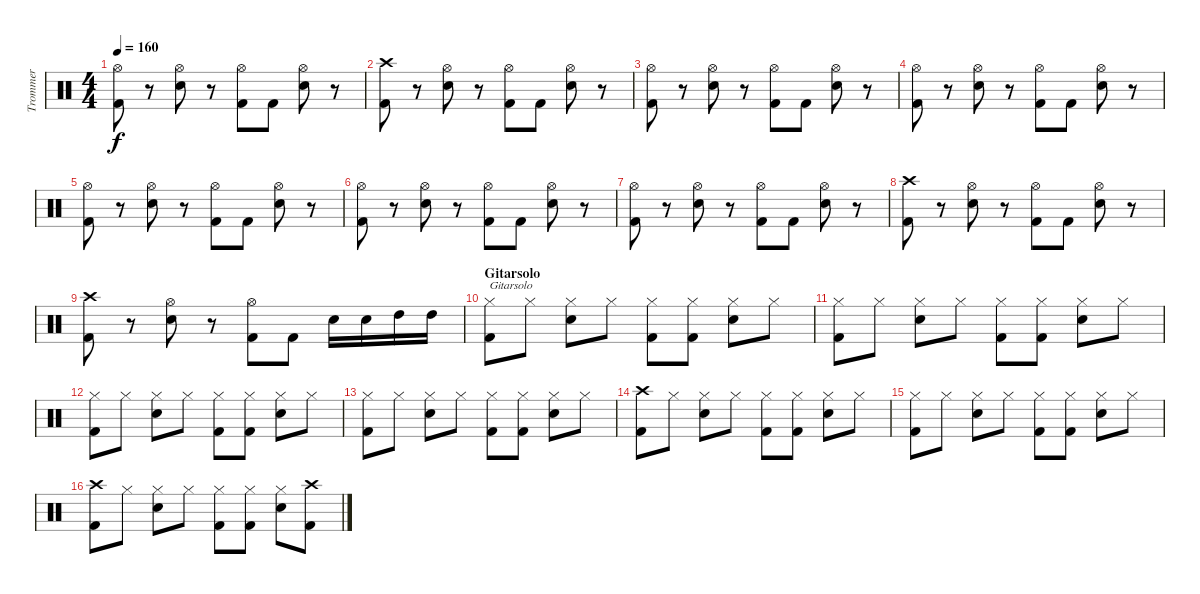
\track ("Trommer" "Trommer") {instrument percussion}
\staff {score}
\articulation defaults
\ts (4 4)
\tempo 160
\clef neutral
\ks c
("Hi-Hat (open)" "Kick (hit) 2").8{dy f} r.8 ("Hi-Hat (open)" "Electric Snare (hit)").8 r.8 ("Hi-Hat (open)" "Kick (hit) 2").8 "Kick (hit) 2".8 ("Hi-Hat (open)" "Electric Snare (hit)").8 r.8 |
("Crash high (hit)" "Kick (hit) 2").8 r.8 ("Hi-Hat (open)" "Electric Snare (hit)").8 r.8 ("Hi-Hat (open)" "Kick (hit) 2").8 "Kick (hit) 2".8 ("Hi-Hat (open)" "Electric Snare (hit)").8 r.8 |
("Hi-Hat (open)" "Kick (hit) 2").8 r.8 ("Hi-Hat (open)" "Electric Snare (hit)").8 r.8 ("Hi-Hat (open)" "Kick (hit) 2").8 "Kick (hit) 2".8 ("Hi-Hat (open)" "Electric Snare (hit)").8 r.8 |
("Hi-Hat (open)" "Kick (hit) 2").8 r.8 ("Hi-Hat (open)" "Electric Snare (hit)").8 r.8 ("Hi-Hat (open)" "Kick (hit) 2").8 "Kick (hit) 2".8 ("Hi-Hat (open)" "Electric Snare (hit)").8 r.8 |
("Hi-Hat (open)" "Kick (hit) 2").8 r.8 ("Hi-Hat (open)" "Electric Snare (hit)").8 r.8 ("Hi-Hat (open)" "Kick (hit) 2").8 "Kick (hit) 2".8 ("Hi-Hat (open)" "Electric Snare (hit)").8 r.8 |
("Hi-Hat (open)" "Kick (hit) 2").8 r.8 ("Hi-Hat (open)" "Electric Snare (hit)").8 r.8 ("Hi-Hat (open)" "Kick (hit) 2").8 "Kick (hit) 2".8 ("Hi-Hat (open)" "Electric Snare (hit)").8 r.8 |
("Hi-Hat (open)" "Kick (hit) 2").8 r.8 ("Hi-Hat (open)" "Electric Snare (hit)").8 r.8 ("Hi-Hat (open)" "Kick (hit) 2").8 "Kick (hit) 2".8 ("Hi-Hat (open)" "Electric Snare (hit)").8 r.8 |
("Crash high (hit)" "Kick (hit) 2").8 r.8 ("Hi-Hat (open)" "Electric Snare (hit)").8 r.8 ("Hi-Hat (open)" "Kick (hit) 2").8 "Kick (hit) 2".8 ("Hi-Hat (open)" "Electric Snare (hit)").8 r.8 |
("Crash high (hit)" "Kick (hit) 2").8 r.8 ("Hi-Hat (open)" "Electric Snare (hit)").8 r.8 ("Hi-Hat (open)" "Kick (hit) 2").8 "Kick (hit) 2".8 "Electric Snare (hit)".16 "Electric Snare (hit)".16 "High Tom (hit)".16 "High Tom (hit)".16 |
\section ("" "Gitarsolo")
("Hi-Hat (closed)" "Kick (hit) 2").8{txt "Gitarsolo"} "Hi-Hat (closed)".8 ("Hi-Hat (closed)" "Electric Snare (hit)").8 "Hi-Hat (closed)".8 ("Hi-Hat (closed)" "Kick (hit) 2").8 ("Hi-Hat (closed)" "Kick (hit) 2").8 ("Hi-Hat (closed)" "Electric Snare (hit)").8 "Hi-Hat (closed)".8 |
("Hi-Hat (closed)" "Kick (hit) 2").8 "Hi-Hat (closed)".8 ("Hi-Hat (closed)" "Electric Snare (hit)").8 "Hi-Hat (closed)".8 ("Hi-Hat (closed)" "Kick (hit) 2").8 ("Hi-Hat (closed)" "Kick (hit) 2").8 ("Hi-Hat (closed)" "Electric Snare (hit)").8 "Hi-Hat (closed)".8 |
("Hi-Hat (closed)" "Kick (hit) 2").8 "Hi-Hat (closed)".8 ("Hi-Hat (closed)" "Electric Snare (hit)").8 "Hi-Hat (closed)".8 ("Hi-Hat (closed)" "Kick (hit) 2").8 ("Hi-Hat (closed)" "Kick (hit) 2").8 ("Hi-Hat (closed)" "Electric Snare (hit)").8 "Hi-Hat (closed)".8 |
("Hi-Hat (closed)" "Kick (hit) 2").8 "Hi-Hat (closed)".8 ("Hi-Hat (closed)" "Electric Snare (hit)").8 "Hi-Hat (closed)".8 ("Hi-Hat (closed)" "Kick (hit) 2").8 ("Hi-Hat (closed)" "Kick (hit) 2").8 ("Hi-Hat (closed)" "Electric Snare (hit)").8 "Hi-Hat (closed)".8 |
("Crash high (hit)" "Kick (hit) 2").8 "Hi-Hat (closed)".8 ("Hi-Hat (closed)" "Electric Snare (hit)").8 "Hi-Hat (closed)".8 ("Hi-Hat (closed)" "Kick (hit) 2").8 ("Hi-Hat (closed)" "Kick (hit) 2").8 ("Hi-Hat (closed)" "Electric Snare (hit)").8 "Hi-Hat (closed)".8 |
("Hi-Hat (closed)" "Kick (hit) 2").8 "Hi-Hat (closed)".8 ("Hi-Hat (closed)" "Electric Snare (hit)").8 "Hi-Hat (closed)".8 ("Hi-Hat (closed)" "Kick (hit) 2").8 ("Hi-Hat (closed)" "Kick (hit) 2").8 ("Hi-Hat (closed)" "Electric Snare (hit)").8 "Hi-Hat (closed)".8 |
("Crash high (hit)" "Kick (hit) 2").8 "Hi-Hat (closed)".8 ("Hi-Hat (closed)" "Electric Snare (hit)").8 "Hi-Hat (closed)".8 ("Hi-Hat (closed)" "Kick (hit) 2").8 ("Hi-Hat (closed)" "Kick (hit) 2").8 ("Hi-Hat (closed)" "Electric Snare (hit)").8 ("Crash high (hit)" "Kick (hit) 2").8
